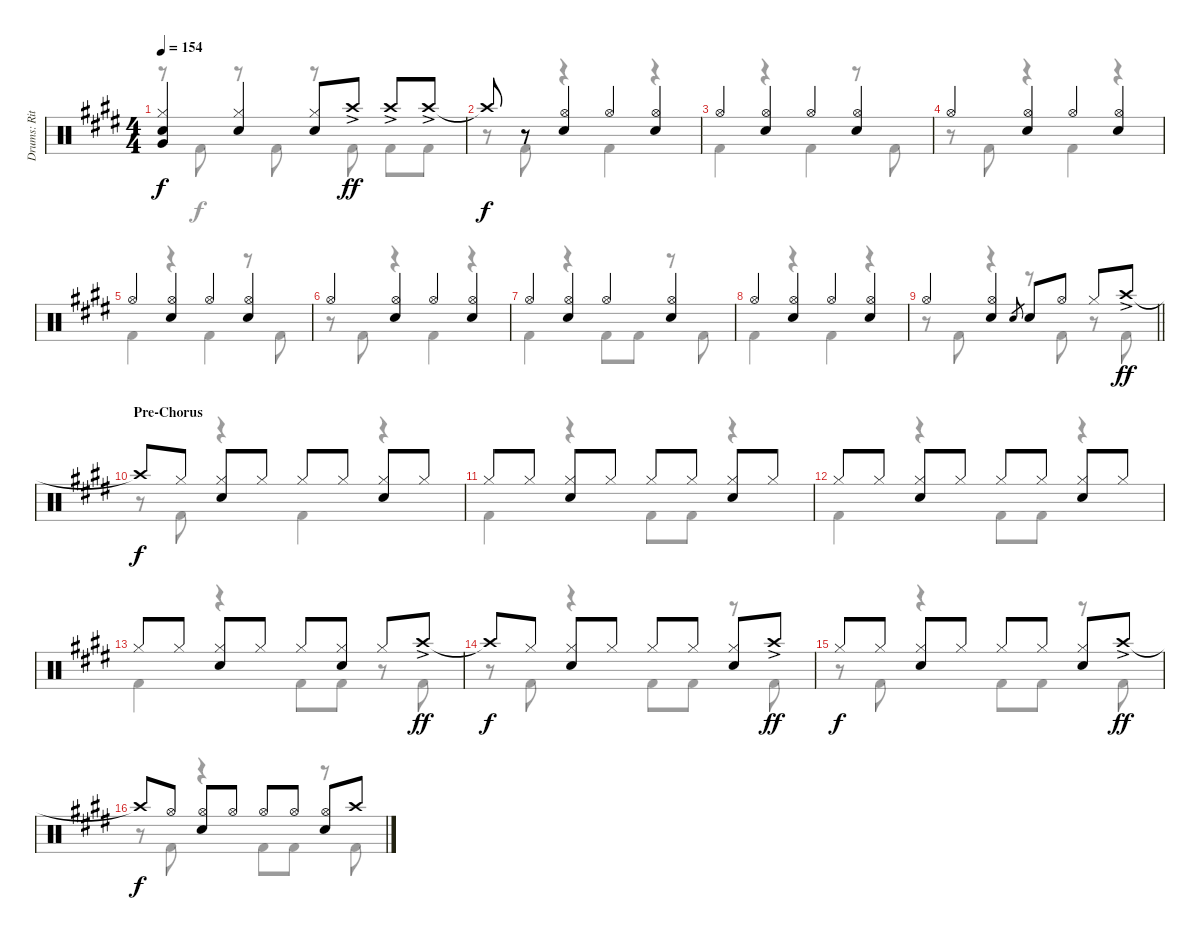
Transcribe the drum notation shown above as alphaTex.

\track ("Drums: Ritsu Tainaka" "Drums: Rit") {instrument percussion}
\staff {score}
\articulation defaults
\voice
\ts (4 4)
\tempo 154
\clef neutral
\ks e
("Hi-Hat (closed)" "Electric Snare (hit)" "Very Low Tom (hit)").4{dy f} ("Hi-Hat (closed)" "Electric Snare (hit)").4 ("Hi-Hat (closed)" "Electric Snare (hit)").8 "Crash high (hit)"{ac}.8{dy ff} "Crash high (hit)"{ac}.8 "Crash high (hit)"{ac}.8 |
"Crash high (hit)"{t}.8{dy f} r.8 ("Hi-Hat (open)" "Electric Snare (hit)").4 "Hi-Hat (open)".4 ("Hi-Hat (open)" "Electric Snare (hit)").4 |
"Hi-Hat (open)".4 ("Hi-Hat (open)" "Electric Snare (hit)").4 "Hi-Hat (open)".4 ("Hi-Hat (open)" "Electric Snare (hit)").4 |
"Hi-Hat (open)".4 ("Hi-Hat (open)" "Electric Snare (hit)").4 "Hi-Hat (open)".4 ("Hi-Hat (open)" "Electric Snare (hit)").4 |
"Hi-Hat (open)".4 ("Hi-Hat (open)" "Electric Snare (hit)").4 "Hi-Hat (open)".4 ("Hi-Hat (open)" "Electric Snare (hit)").4 |
"Hi-Hat (open)".4 ("Hi-Hat (open)" "Electric Snare (hit)").4 "Hi-Hat (open)".4 ("Hi-Hat (open)" "Electric Snare (hit)").4 |
"Hi-Hat (open)".4 ("Hi-Hat (open)" "Electric Snare (hit)").4 "Hi-Hat (open)".4 ("Hi-Hat (open)" "Electric Snare (hit)").4 |
"Hi-Hat (open)".4 ("Hi-Hat (open)" "Electric Snare (hit)").4 "Hi-Hat (open)".4 ("Hi-Hat (open)" "Electric Snare (hit)").4 |
\barLineRight lightlight "Hi-Hat (open)".4
("Hi-Hat (open)" "Electric Snare (hit)").4 "Electric Snare (hit)".8{gr} "Electric Snare (hit)".8 "Hi-Hat (open)".8 "Hi-Hat (closed)".8 "Crash high (hit)"{ac}.8{dy ff} |
\section ("" "Pre-Chorus")
"Crash high (hit)"{t}.8{dy f} "Hi-Hat (closed)".8 ("Hi-Hat (closed)" "Electric Snare (hit)").8 "Hi-Hat (closed)".8 "Hi-Hat (closed)".8 "Hi-Hat (closed)".8 ("Hi-Hat (closed)" "Electric Snare (hit)").8 "Hi-Hat (closed)".8 |
"Hi-Hat (closed)".8 "Hi-Hat (closed)".8 ("Hi-Hat (closed)" "Electric Snare (hit)").8 "Hi-Hat (closed)".8 "Hi-Hat (closed)".8 "Hi-Hat (closed)".8 ("Hi-Hat (closed)" "Electric Snare (hit)").8 "Hi-Hat (closed)".8 |
"Hi-Hat (closed)".8 "Hi-Hat (closed)".8 ("Hi-Hat (closed)" "Electric Snare (hit)").8 "Hi-Hat (closed)".8 "Hi-Hat (closed)".8 "Hi-Hat (closed)".8 ("Hi-Hat (closed)" "Electric Snare (hit)").8 "Hi-Hat (closed)".8 |
"Hi-Hat (closed)".8 "Hi-Hat (closed)".8 ("Hi-Hat (closed)" "Electric Snare (hit)").8 "Hi-Hat (closed)".8 "Hi-Hat (closed)".8 ("Hi-Hat (closed)" "Electric Snare (hit)").8 "Hi-Hat (closed)".8 "Crash high (hit)"{ac}.8{dy ff} |
"Crash high (hit)"{t}.8{dy f} "Hi-Hat (closed)".8 ("Hi-Hat (closed)" "Electric Snare (hit)").8 "Hi-Hat (closed)".8 "Hi-Hat (closed)".8 "Hi-Hat (closed)".8 ("Hi-Hat (closed)" "Electric Snare (hit)").8 "Crash high (hit)"{ac}.8{dy ff} |
"Hi-Hat (closed)".8{dy f} "Hi-Hat (closed)".8 ("Hi-Hat (closed)" "Electric Snare (hit)").8 "Hi-Hat (closed)".8 "Hi-Hat (closed)".8 "Hi-Hat (closed)".8 ("Hi-Hat (closed)" "Electric Snare (hit)").8 "Crash high (hit)"{ac}.8{dy ff} |
"Crash high (hit)"{t}.8{dy f} "Hi-Hat (open)".8 ("Hi-Hat (open)" "Electric Snare (hit)").8 "Hi-Hat (open)".8 "Hi-Hat (open)".8 "Hi-Hat (open)".8 ("Hi-Hat (open)" "Electric Snare (hit)").8 "Crash high (hit)".8
\voice
\clef neutral
\ottava regular
\simile none
\ks e
r.8{dy f} "Kick (hit) 2".8 r.8 "Kick (hit) 2".8 r.8 "Kick (hit) 2".8 "Kick (hit) 2".8 "Kick (hit) 2".8 |
r.8 "Kick (hit) 2".8 r.4 "Kick (hit) 2".4 r.4 |
"Kick (hit) 2".4 r.4 "Kick (hit) 2".4 r.8 "Kick (hit) 2".8 |
r.8 "Kick (hit) 2".8 r.4 "Kick (hit) 2".4 r.4 |
"Kick (hit) 2".4 r.4 "Kick (hit) 2".4 r.8 "Kick (hit) 2".8 |
r.8 "Kick (hit) 2".8 r.4 "Kick (hit) 2".4 r.4 |
"Kick (hit) 2".4 r.4 "Kick (hit) 2".8 "Kick (hit) 2".8 r.8 "Kick (hit) 2".8 |
"Kick (hit) 2".4 r.4 "Kick (hit) 2".4 r.4 |
\barLineRight lightlight
r.8 "Kick (hit) 2".8 r.4 r.8 "Kick (hit) 2".8 r.8 "Kick (hit) 2".8 |
r.8 "Kick (hit) 2".8 r.4 "Kick (hit) 2".4 r.4 |
"Kick (hit) 2".4 r.4 "Kick (hit) 2".8 "Kick (hit) 2".8 r.4 |
"Kick (hit) 2".4 r.4 "Kick (hit) 2".8 "Kick (hit) 2".8 r.4 |
"Kick (hit) 2".4 r.4 "Kick (hit) 2".8 "Kick (hit) 2".8 r.8 "Kick (hit) 2".8 |
r.8 "Kick (hit) 2".8 r.4 "Kick (hit) 2".8 "Kick (hit) 2".8 r.8 "Kick (hit) 2".8 |
r.8 "Kick (hit) 2".8 r.4 "Kick (hit) 2".8 "Kick (hit) 2".8 r.8 "Kick (hit) 2".8 |
r.8 "Kick (hit) 2".8 r.4 "Kick (hit) 2".8 "Kick (hit) 2".8 r.8 "Kick (hit) 2".8
